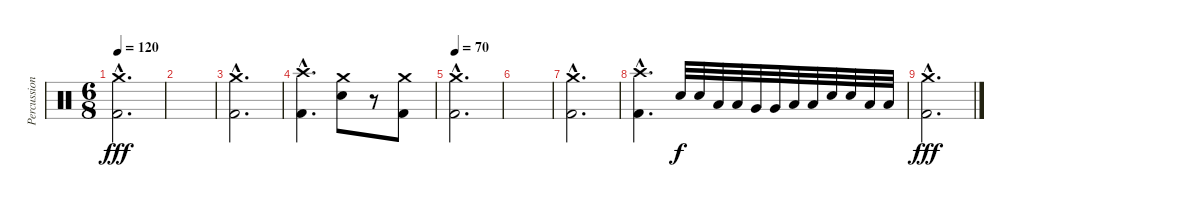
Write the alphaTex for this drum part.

\track ("Percussion" "Percussion") {instrument percussion}
\staff {score}
\articulation defaults
\ts (6 8)
\tempo 120
\clef neutral
\ks c
("Crash medium (hit)"{hac} "Kick (hit) 2"{hac}).2{d dy fff} |
|
("Crash medium (hit)"{hac} "Kick (hit) 2"{hac}).2{d} |
("Crash high (hit)"{hac} "Kick (hit) 2"{hac}).4{d} ("Crash medium (hit)" "Electric Snare (hit)").8 r.8 ("Crash medium (hit)" "Kick (hit) 2").8 |
\tempo 70
("Crash medium (hit)"{hac} "Kick (hit) 2"{hac}).2{d} |
|
("Crash medium (hit)"{hac} "Kick (hit) 2"{hac}).2{d} |
("Crash high (hit)"{hac} "Kick (hit) 2"{hac}).4{d} "Electric Snare (hit)".32{dy f} "Electric Snare (hit)".32 "Low Tom (hit)".32 "Low Tom (hit)".32 "Very Low Tom (hit)".32 "Very Low Tom (hit)".32 "Low Floor Tom (hit)".32 "Low Floor Tom (hit)".32 "Electric Snare (hit)".32 "Electric Snare (hit)".32 "Low Tom (hit)".32 "Low Tom (hit)".32 |
("Crash medium (hit)"{hac} "Kick (hit) 2"{hac}).2{d dy fff}
